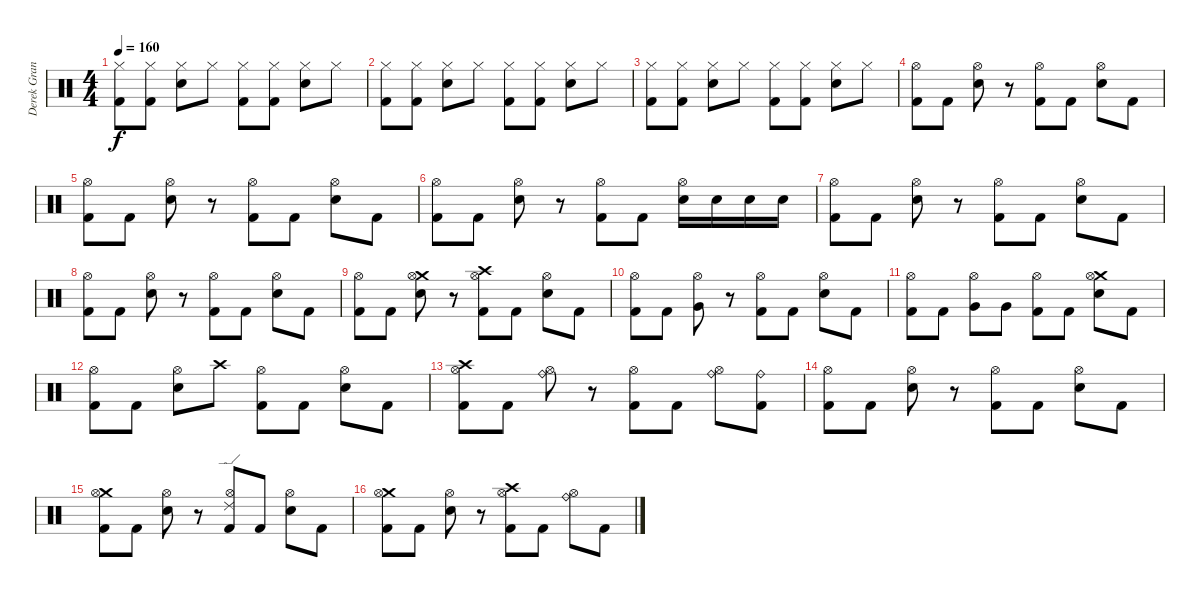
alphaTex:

\track ("Derek Grant" "Derek Gran") {instrument percussion}
\staff {score}
\articulation defaults
\ts (4 4)
\tempo 160
\clef neutral
\ks c
("Hi-Hat (closed)" "Kick (hit) 2").8{dy f} ("Hi-Hat (closed)" "Kick (hit) 2").8 ("Hi-Hat (closed)" "Snare (hit) 2").8 "Hi-Hat (closed)".8 ("Hi-Hat (closed)" "Kick (hit) 2").8 ("Hi-Hat (closed)" "Kick (hit) 2").8 ("Hi-Hat (closed)" "Snare (hit) 2").8 "Hi-Hat (closed)".8 |
("Hi-Hat (closed)" "Kick (hit) 2").8 ("Hi-Hat (closed)" "Kick (hit) 2").8 ("Hi-Hat (closed)" "Snare (hit) 2").8 "Hi-Hat (closed)".8 ("Hi-Hat (closed)" "Kick (hit) 2").8 ("Hi-Hat (closed)" "Kick (hit) 2").8 ("Hi-Hat (closed)" "Snare (hit) 2").8 "Hi-Hat (closed)".8 |
("Hi-Hat (closed)" "Kick (hit) 2").8 ("Hi-Hat (closed)" "Kick (hit) 2").8 ("Hi-Hat (closed)" "Snare (hit) 2").8 "Hi-Hat (closed)".8 ("Hi-Hat (closed)" "Kick (hit) 2").8 ("Hi-Hat (closed)" "Kick (hit) 2").8 ("Hi-Hat (closed)" "Snare (hit) 2").8 "Hi-Hat (closed)".8 |
("Hi-Hat (open)" "Kick (hit) 2").8 "Kick (hit) 2".8 ("Hi-Hat (open)" "Snare (hit) 2").8 r.8 ("Hi-Hat (open)" "Kick (hit) 2").8 "Kick (hit) 2".8 ("Hi-Hat (open)" "Snare (hit) 2").8 "Kick (hit) 2".8 |
("Hi-Hat (open)" "Kick (hit) 2").8 "Kick (hit) 2".8 ("Hi-Hat (open)" "Snare (hit) 2").8 r.8 ("Hi-Hat (open)" "Kick (hit) 2").8 "Kick (hit) 2".8 ("Hi-Hat (open)" "Snare (hit) 2").8 "Kick (hit) 2".8 |
("Hi-Hat (open)" "Kick (hit) 2").8 "Kick (hit) 2".8 ("Hi-Hat (open)" "Snare (hit) 2").8 r.8 ("Hi-Hat (open)" "Kick (hit) 2").8 "Kick (hit) 2".8 ("Hi-Hat (open)" "Snare (hit) 2").16 "Snare (hit) 2".16 "Snare (hit) 2".16 "Snare (hit) 2".16 |
("Hi-Hat (open)" "Kick (hit) 2").8 "Kick (hit) 2".8 ("Hi-Hat (open)" "Snare (hit) 2").8 r.8 ("Hi-Hat (open)" "Kick (hit) 2").8 "Kick (hit) 2".8 ("Hi-Hat (open)" "Snare (hit) 2").8 "Kick (hit) 2".8 |
("Hi-Hat (open)" "Kick (hit) 2").8 "Kick (hit) 2".8 ("Hi-Hat (open)" "Snare (hit) 2").8 r.8 ("Hi-Hat (open)" "Kick (hit) 2").8 "Kick (hit) 2".8 ("Hi-Hat (open)" "Snare (hit) 2").8 "Kick (hit) 2".8 |
("Hi-Hat (open)" "Kick (hit) 2").8 "Kick (hit) 2".8 ("Crash medium (hit)" "Hi-Hat (open)" "Snare (hit) 2").8 r.8 ("Crash high (hit)" "Hi-Hat (open)" "Kick (hit) 2").8 "Kick (hit) 2".8 ("Hi-Hat (open)" "Snare (hit) 2").8 "Kick (hit) 2".8 |
("Hi-Hat (open)" "Kick (hit) 2").8 "Kick (hit) 2".8 ("Hi-Hat (open)" "Very Low Tom (hit)").8 r.8 ("Hi-Hat (open)" "Kick (hit) 2").8 "Kick (hit) 2".8 ("Hi-Hat (open)" "Snare (hit) 2").8 "Kick (hit) 2".8 |
("Hi-Hat (open)" "Kick (hit) 2").8 "Kick (hit) 2".8 ("Hi-Hat (open)" "Very Low Tom (hit)").8 "Very Low Tom (hit)".8 ("Hi-Hat (open)" "Kick (hit) 2").8 "Kick (hit) 2".8 ("Crash medium (hit)" "Hi-Hat (open)" "Snare (hit) 2").8 "Kick (hit) 2".8 |
("Hi-Hat (open)" "Kick (hit) 2").8 "Kick (hit) 2".8 ("Hi-Hat (open)" "Snare (hit) 2").8 "Crash high (hit)".8 ("Hi-Hat (open)" "Kick (hit) 2").8 "Kick (hit) 2".8 ("Hi-Hat (open)" "Snare (hit) 2").8 "Kick (hit) 2".8 |
("Crash high (hit)" "Hi-Hat (open)" "Kick (hit) 2").8 "Kick (hit) 2".8 ("Hi-Hat (open)" "Ride (bell)").8 r.8 ("Hi-Hat (open)" "Kick (hit) 2").8 "Kick (hit) 2".8 ("Hi-Hat (open)" "Ride (bell)").8 ("Ride (bell)" "Kick (hit) 2").8 |
("Hi-Hat (open)" "Kick (hit) 2").8 "Kick (hit) 2".8 ("Hi-Hat (open)" "Snare (hit) 2").8 r.8 ("Hi-Hat (open)" "Kick (hit) 2").8 "Kick (hit) 2".8 ("Hi-Hat (open)" "Snare (hit) 2").8 "Kick (hit) 2".8 |
("Crash medium (hit)" "Hi-Hat (open)" "Kick (hit) 2").8 "Kick (hit) 2".8 ("Hi-Hat (open)" "Snare (hit) 2").8 r.8 ("Ride (edge) 2" "Hi-Hat (open)" "Kick (hit) 2").8 "Kick (hit) 2".8 ("Hi-Hat (open)" "Snare (hit) 2").8 "Kick (hit) 2".8 |
("Crash medium (hit)" "Hi-Hat (open)" "Kick (hit) 2").8 "Kick (hit) 2".8 ("Hi-Hat (open)" "Snare (hit) 2").8 r.8 ("Crash high (hit)" "Hi-Hat (open)" "Kick (hit) 2").8 "Kick (hit) 2".8 ("Hi-Hat (open)" "Ride (bell)").8 "Kick (hit) 2".8
